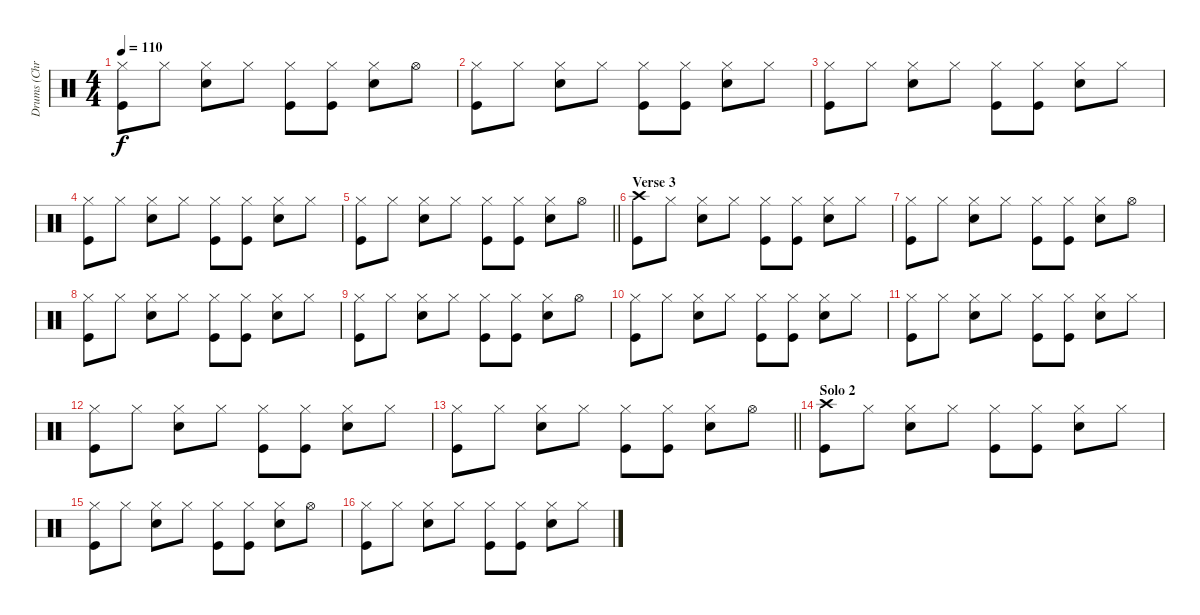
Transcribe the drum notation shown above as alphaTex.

\track ("Drums (Chris Frantz)" "Drums (Chr") {instrument percussion}
\staff {score}
\articulation defaults
\ts (4 4)
\tempo 110
\clef neutral
\ks c
("Hi-Hat (closed)" "Kick (hit)").8{dy f} "Hi-Hat (closed)".8 ("Hi-Hat (closed)" "Snare (hit) 2").8 "Hi-Hat (closed)".8 ("Hi-Hat (closed)" "Kick (hit)").8 ("Hi-Hat (closed)" "Kick (hit)").8 ("Hi-Hat (closed)" "Snare (hit) 2").8 "Hi-Hat (open)".8 |
("Hi-Hat (closed)" "Kick (hit)").8 "Hi-Hat (closed)".8 ("Hi-Hat (closed)" "Snare (hit) 2").8 "Hi-Hat (closed)".8 ("Hi-Hat (closed)" "Kick (hit)").8 ("Hi-Hat (closed)" "Kick (hit)").8 ("Hi-Hat (closed)" "Snare (hit) 2").8 "Hi-Hat (closed)".8 |
("Hi-Hat (closed)" "Kick (hit)").8 "Hi-Hat (closed)".8 ("Hi-Hat (closed)" "Snare (hit) 2").8 "Hi-Hat (closed)".8 ("Hi-Hat (closed)" "Kick (hit)").8 ("Hi-Hat (closed)" "Kick (hit)").8 ("Hi-Hat (closed)" "Snare (hit) 2").8 "Hi-Hat (closed)".8 |
("Hi-Hat (closed)" "Kick (hit)").8 "Hi-Hat (closed)".8 ("Hi-Hat (closed)" "Snare (hit) 2").8 "Hi-Hat (closed)".8 ("Hi-Hat (closed)" "Kick (hit)").8 ("Hi-Hat (closed)" "Kick (hit)").8 ("Hi-Hat (closed)" "Snare (hit) 2").8 "Hi-Hat (closed)".8 |
\barLineRight lightlight
("Hi-Hat (closed)" "Kick (hit)").8 "Hi-Hat (closed)".8 ("Hi-Hat (closed)" "Snare (hit) 2").8 "Hi-Hat (closed)".8 ("Hi-Hat (closed)" "Kick (hit)").8 ("Hi-Hat (closed)" "Kick (hit)").8 ("Hi-Hat (closed)" "Snare (hit) 2").8 "Hi-Hat (open)".8 |
\section ("" "Verse 3")
("Crash high (hit)" "Kick (hit)").8 "Hi-Hat (closed)".8 ("Hi-Hat (closed)" "Snare (hit) 2").8 "Hi-Hat (closed)".8 ("Hi-Hat (closed)" "Kick (hit)").8 ("Hi-Hat (closed)" "Kick (hit)").8 ("Hi-Hat (closed)" "Snare (hit) 2").8 "Hi-Hat (closed)".8 |
("Hi-Hat (closed)" "Kick (hit)").8 "Hi-Hat (closed)".8 ("Hi-Hat (closed)" "Snare (hit) 2").8 "Hi-Hat (closed)".8 ("Hi-Hat (closed)" "Kick (hit)").8 ("Hi-Hat (closed)" "Kick (hit)").8 ("Hi-Hat (closed)" "Snare (hit) 2").8 "Hi-Hat (open)".8 |
("Hi-Hat (closed)" "Kick (hit)").8 "Hi-Hat (closed)".8 ("Hi-Hat (closed)" "Snare (hit) 2").8 "Hi-Hat (closed)".8 ("Hi-Hat (closed)" "Kick (hit)").8 ("Hi-Hat (closed)" "Kick (hit)").8 ("Hi-Hat (closed)" "Snare (hit) 2").8 "Hi-Hat (closed)".8 |
("Hi-Hat (closed)" "Kick (hit)").8 "Hi-Hat (closed)".8 ("Hi-Hat (closed)" "Snare (hit) 2").8 "Hi-Hat (closed)".8 ("Hi-Hat (closed)" "Kick (hit)").8 ("Hi-Hat (closed)" "Kick (hit)").8 ("Hi-Hat (closed)" "Snare (hit) 2").8 "Hi-Hat (open)".8 |
("Hi-Hat (closed)" "Kick (hit)").8 "Hi-Hat (closed)".8 ("Hi-Hat (closed)" "Snare (hit) 2").8 "Hi-Hat (closed)".8 ("Hi-Hat (closed)" "Kick (hit)").8 ("Hi-Hat (closed)" "Kick (hit)").8 ("Hi-Hat (closed)" "Snare (hit) 2").8 "Hi-Hat (closed)".8 |
("Hi-Hat (closed)" "Kick (hit)").8 "Hi-Hat (closed)".8 ("Hi-Hat (closed)" "Snare (hit) 2").8 "Hi-Hat (closed)".8 ("Hi-Hat (closed)" "Kick (hit)").8 ("Hi-Hat (closed)" "Kick (hit)").8 ("Hi-Hat (closed)" "Snare (hit) 2").8 "Hi-Hat (closed)".8 |
("Hi-Hat (closed)" "Kick (hit)").8 "Hi-Hat (closed)".8 ("Hi-Hat (closed)" "Snare (hit) 2").8 "Hi-Hat (closed)".8 ("Hi-Hat (closed)" "Kick (hit)").8 ("Hi-Hat (closed)" "Kick (hit)").8 ("Hi-Hat (closed)" "Snare (hit) 2").8 "Hi-Hat (closed)".8 |
\barLineRight lightlight
("Hi-Hat (closed)" "Kick (hit)").8 "Hi-Hat (closed)".8 ("Hi-Hat (closed)" "Snare (hit) 2").8 "Hi-Hat (closed)".8 ("Hi-Hat (closed)" "Kick (hit)").8 ("Hi-Hat (closed)" "Kick (hit)").8 ("Hi-Hat (closed)" "Snare (hit) 2").8 "Hi-Hat (open)".8 |
\section ("" "Solo 2")
("Crash high (hit)" "Kick (hit)").8 "Hi-Hat (closed)".8 ("Hi-Hat (closed)" "Snare (hit) 2").8 "Hi-Hat (closed)".8 ("Hi-Hat (closed)" "Kick (hit)").8 ("Hi-Hat (closed)" "Kick (hit)").8 ("Hi-Hat (closed)" "Snare (hit) 2").8 "Hi-Hat (closed)".8 |
("Hi-Hat (closed)" "Kick (hit)").8 "Hi-Hat (closed)".8 ("Hi-Hat (closed)" "Snare (hit) 2").8 "Hi-Hat (closed)".8 ("Hi-Hat (closed)" "Kick (hit)").8 ("Hi-Hat (closed)" "Kick (hit)").8 ("Hi-Hat (closed)" "Snare (hit) 2").8 "Hi-Hat (open)".8 |
("Hi-Hat (closed)" "Kick (hit)").8 "Hi-Hat (closed)".8 ("Hi-Hat (closed)" "Snare (hit) 2").8 "Hi-Hat (closed)".8 ("Hi-Hat (closed)" "Kick (hit)").8 ("Hi-Hat (closed)" "Kick (hit)").8 ("Hi-Hat (closed)" "Snare (hit) 2").8 "Hi-Hat (closed)".8
